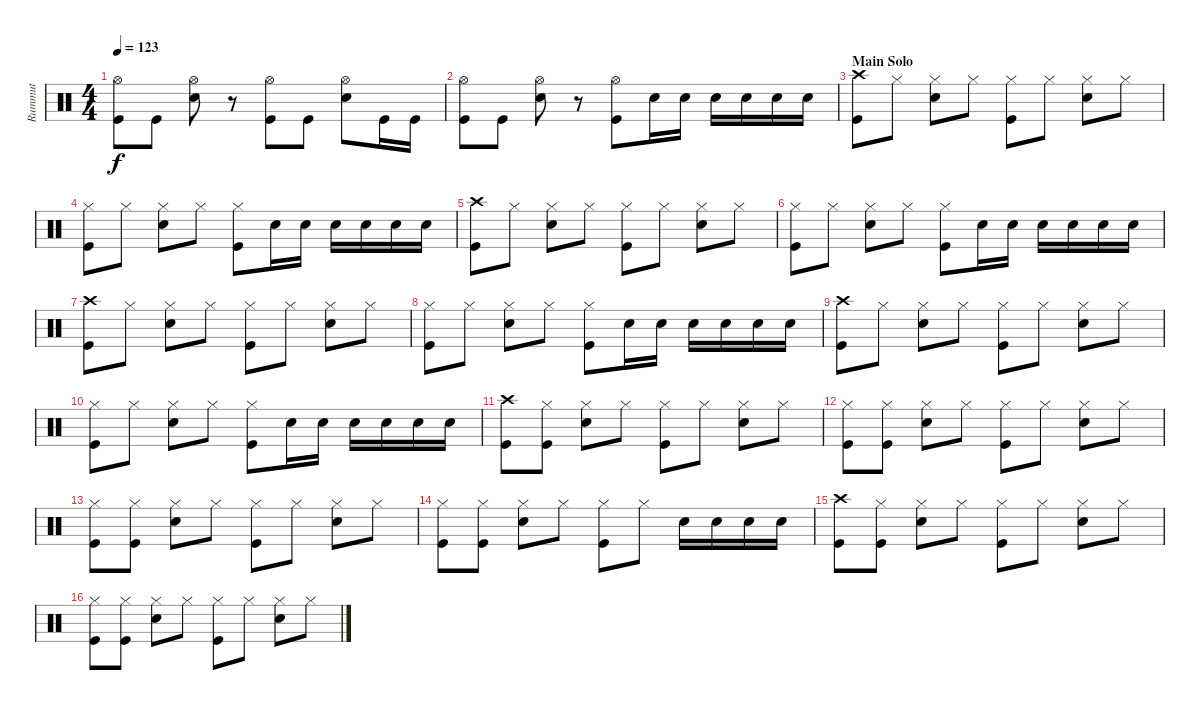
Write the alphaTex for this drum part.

\track ("Rummut" "Rummut") {instrument percussion}
\staff {score}
\articulation defaults
\ts (4 4)
\tempo 123
\clef neutral
\ks c
("Hi-Hat (open)" "Kick (hit)").8{dy f} "Kick (hit)".8 ("Hi-Hat (open)" "Snare (hit) 2").8 r.8 ("Hi-Hat (open)" "Kick (hit)").8 "Kick (hit)".8 ("Hi-Hat (open)" "Snare (hit) 2").8 "Kick (hit)".16 "Kick (hit)".16 |
("Hi-Hat (open)" "Kick (hit)").8 "Kick (hit)".8 ("Hi-Hat (open)" "Snare (hit) 2").8 r.8 ("Hi-Hat (open)" "Kick (hit)").8 "Snare (hit) 2".16 "Snare (hit) 2".16 "Snare (hit) 2".16 "Snare (hit) 2".16 "Snare (hit) 2".16 "Snare (hit) 2".16 |
\section ("" "Main Solo")
("Crash high (hit)" "Kick (hit)").8 "Hi-Hat (closed)".8 ("Hi-Hat (closed)" "Snare (hit) 2").8 "Hi-Hat (closed)".8 ("Hi-Hat (closed)" "Kick (hit)").8 "Hi-Hat (closed)".8 ("Hi-Hat (closed)" "Snare (hit) 2").8 "Hi-Hat (closed)".8 |
("Hi-Hat (closed)" "Kick (hit)").8 "Hi-Hat (closed)".8 ("Hi-Hat (closed)" "Snare (hit) 2").8 "Hi-Hat (closed)".8 ("Hi-Hat (closed)" "Kick (hit)").8 "Snare (hit) 2".16 "Snare (hit) 2".16 "Snare (hit) 2".16 "Snare (hit) 2".16 "Snare (hit) 2".16 "Snare (hit) 2".16 |
("Crash high (hit)" "Kick (hit)").8 "Hi-Hat (closed)".8 ("Hi-Hat (closed)" "Snare (hit) 2").8 "Hi-Hat (closed)".8 ("Hi-Hat (closed)" "Kick (hit)").8 "Hi-Hat (closed)".8 ("Hi-Hat (closed)" "Snare (hit) 2").8 "Hi-Hat (closed)".8 |
("Hi-Hat (closed)" "Kick (hit)").8 "Hi-Hat (closed)".8 ("Hi-Hat (closed)" "Snare (hit) 2").8 "Hi-Hat (closed)".8 ("Hi-Hat (closed)" "Kick (hit)").8 "Snare (hit) 2".16 "Snare (hit) 2".16 "Snare (hit) 2".16 "Snare (hit) 2".16 "Snare (hit) 2".16 "Snare (hit) 2".16 |
("Crash high (hit)" "Kick (hit)").8 "Hi-Hat (closed)".8 ("Hi-Hat (closed)" "Snare (hit) 2").8 "Hi-Hat (closed)".8 ("Hi-Hat (closed)" "Kick (hit)").8 "Hi-Hat (closed)".8 ("Hi-Hat (closed)" "Snare (hit) 2").8 "Hi-Hat (closed)".8 |
("Hi-Hat (closed)" "Kick (hit)").8 "Hi-Hat (closed)".8 ("Hi-Hat (closed)" "Snare (hit) 2").8 "Hi-Hat (closed)".8 ("Hi-Hat (closed)" "Kick (hit)").8 "Snare (hit) 2".16 "Snare (hit) 2".16 "Snare (hit) 2".16 "Snare (hit) 2".16 "Snare (hit) 2".16 "Snare (hit) 2".16 |
("Crash high (hit)" "Kick (hit)").8 "Hi-Hat (closed)".8 ("Hi-Hat (closed)" "Snare (hit) 2").8 "Hi-Hat (closed)".8 ("Hi-Hat (closed)" "Kick (hit)").8 "Hi-Hat (closed)".8 ("Hi-Hat (closed)" "Snare (hit) 2").8 "Hi-Hat (closed)".8 |
("Hi-Hat (closed)" "Kick (hit)").8 "Hi-Hat (closed)".8 ("Hi-Hat (closed)" "Snare (hit) 2").8 "Hi-Hat (closed)".8 ("Hi-Hat (closed)" "Kick (hit)").8 "Snare (hit) 2".16 "Snare (hit) 2".16 "Snare (hit) 2".16 "Snare (hit) 2".16 "Snare (hit) 2".16 "Snare (hit) 2".16 |
("Crash high (hit)" "Kick (hit)").8 ("Hi-Hat (closed)" "Kick (hit)").8 ("Hi-Hat (closed)" "Snare (hit) 2").8 "Hi-Hat (closed)".8 ("Hi-Hat (closed)" "Kick (hit)").8 "Hi-Hat (closed)".8 ("Hi-Hat (closed)" "Snare (hit) 2").8 "Hi-Hat (closed)".8 |
("Hi-Hat (closed)" "Kick (hit)").8 ("Hi-Hat (closed)" "Kick (hit)").8 ("Hi-Hat (closed)" "Snare (hit) 2").8 "Hi-Hat (closed)".8 ("Hi-Hat (closed)" "Kick (hit)").8 "Hi-Hat (closed)".8 ("Hi-Hat (closed)" "Snare (hit) 2").8 "Hi-Hat (closed)".8 |
("Hi-Hat (closed)" "Kick (hit)").8 ("Hi-Hat (closed)" "Kick (hit)").8 ("Hi-Hat (closed)" "Snare (hit) 2").8 "Hi-Hat (closed)".8 ("Hi-Hat (closed)" "Kick (hit)").8 "Hi-Hat (closed)".8 ("Hi-Hat (closed)" "Snare (hit) 2").8 "Hi-Hat (closed)".8 |
("Hi-Hat (closed)" "Kick (hit)").8 ("Hi-Hat (closed)" "Kick (hit)").8 ("Hi-Hat (closed)" "Snare (hit) 2").8 "Hi-Hat (closed)".8 ("Hi-Hat (closed)" "Kick (hit)").8 "Hi-Hat (closed)".8 "Snare (hit) 2".16 "Snare (hit) 2".16 "Snare (hit) 2".16 "Snare (hit) 2".16 |
("Crash high (hit)" "Kick (hit)").8 ("Hi-Hat (closed)" "Kick (hit)").8 ("Hi-Hat (closed)" "Snare (hit) 2").8 "Hi-Hat (closed)".8 ("Hi-Hat (closed)" "Kick (hit)").8 "Hi-Hat (closed)".8 ("Hi-Hat (closed)" "Snare (hit) 2").8 "Hi-Hat (closed)".8 |
("Hi-Hat (closed)" "Kick (hit)").8 ("Hi-Hat (closed)" "Kick (hit)").8 ("Hi-Hat (closed)" "Snare (hit) 2").8 "Hi-Hat (closed)".8 ("Hi-Hat (closed)" "Kick (hit)").8 "Hi-Hat (closed)".8 ("Hi-Hat (closed)" "Snare (hit) 2").8 "Hi-Hat (closed)".8
